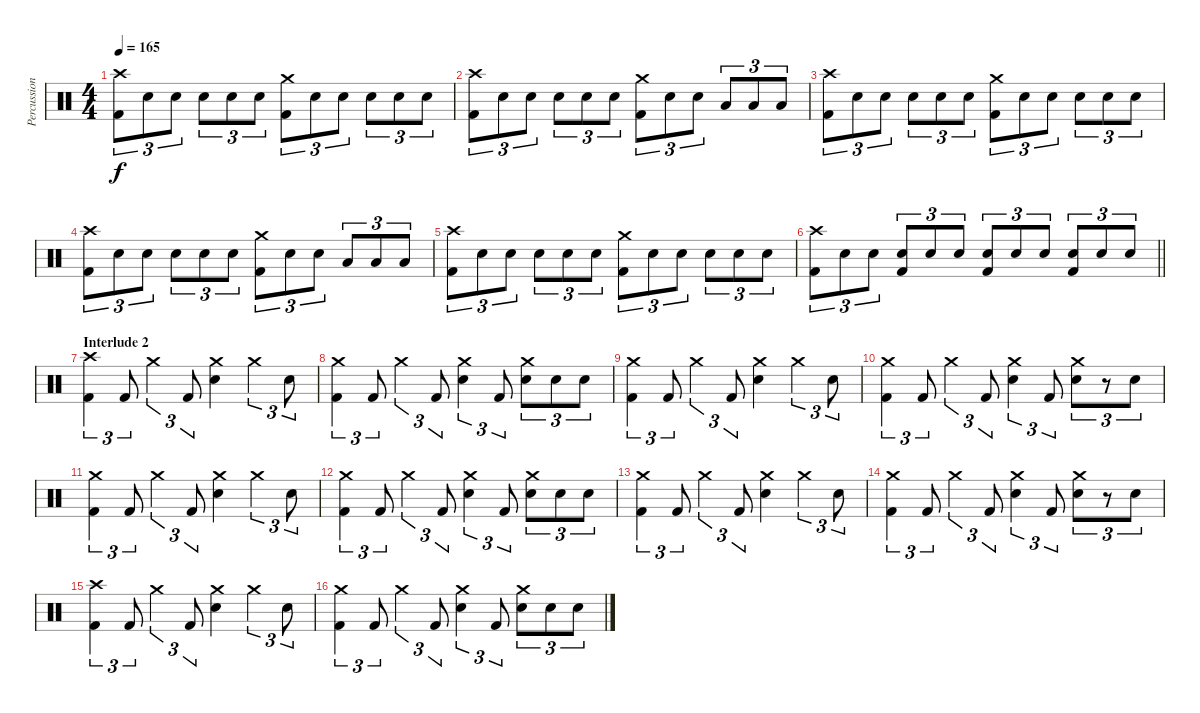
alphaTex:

\track ("Percussion" "Percussion") {instrument percussion}
\staff {score}
\articulation defaults
\ts (4 4)
\tempo 165
\clef neutral
\ks c
("Crash high (hit)" "Kick (hit) 2").8{tu (3 2) dy f} "Electric Snare (hit)".8{tu (3 2)} "Electric Snare (hit)".8{tu (3 2)} "Electric Snare (hit)".8{tu (3 2)} "Electric Snare (hit)".8{tu (3 2)} "Electric Snare (hit)".8{tu (3 2)} ("Crash medium (hit)" "Kick (hit) 2").8{tu (3 2)} "Electric Snare (hit)".8{tu (3 2)} "Electric Snare (hit)".8{tu (3 2)} "Electric Snare (hit)".8{tu (3 2)} "Electric Snare (hit)".8{tu (3 2)} "Electric Snare (hit)".8{tu (3 2)} |
("Crash high (hit)" "Kick (hit) 2").8{tu (3 2)} "Electric Snare (hit)".8{tu (3 2)} "Electric Snare (hit)".8{tu (3 2)} "Electric Snare (hit)".8{tu (3 2)} "Electric Snare (hit)".8{tu (3 2)} "Electric Snare (hit)".8{tu (3 2)} ("Crash medium (hit)" "Kick (hit) 2").8{tu (3 2)} "Electric Snare (hit)".8{tu (3 2)} "Electric Snare (hit)".8{tu (3 2)} "Low Tom (hit)".8{tu (3 2)} "Low Tom (hit)".8{tu (3 2)} "Low Tom (hit)".8{tu (3 2)} |
("Crash high (hit)" "Kick (hit) 2").8{tu (3 2)} "Electric Snare (hit)".8{tu (3 2)} "Electric Snare (hit)".8{tu (3 2)} "Electric Snare (hit)".8{tu (3 2)} "Electric Snare (hit)".8{tu (3 2)} "Electric Snare (hit)".8{tu (3 2)} ("Crash medium (hit)" "Kick (hit) 2").8{tu (3 2)} "Electric Snare (hit)".8{tu (3 2)} "Electric Snare (hit)".8{tu (3 2)} "Electric Snare (hit)".8{tu (3 2)} "Electric Snare (hit)".8{tu (3 2)} "Electric Snare (hit)".8{tu (3 2)} |
("Crash high (hit)" "Kick (hit) 2").8{tu (3 2)} "Electric Snare (hit)".8{tu (3 2)} "Electric Snare (hit)".8{tu (3 2)} "Electric Snare (hit)".8{tu (3 2)} "Electric Snare (hit)".8{tu (3 2)} "Electric Snare (hit)".8{tu (3 2)} ("Crash medium (hit)" "Kick (hit) 2").8{tu (3 2)} "Electric Snare (hit)".8{tu (3 2)} "Electric Snare (hit)".8{tu (3 2)} "Low Tom (hit)".8{tu (3 2)} "Low Tom (hit)".8{tu (3 2)} "Low Tom (hit)".8{tu (3 2)} |
("Crash high (hit)" "Kick (hit) 2").8{tu (3 2)} "Electric Snare (hit)".8{tu (3 2)} "Electric Snare (hit)".8{tu (3 2)} "Electric Snare (hit)".8{tu (3 2)} "Electric Snare (hit)".8{tu (3 2)} "Electric Snare (hit)".8{tu (3 2)} ("Crash medium (hit)" "Kick (hit) 2").8{tu (3 2)} "Electric Snare (hit)".8{tu (3 2)} "Electric Snare (hit)".8{tu (3 2)} "Electric Snare (hit)".8{tu (3 2)} "Electric Snare (hit)".8{tu (3 2)} "Electric Snare (hit)".8{tu (3 2)} |
\barLineRight lightlight
("Crash high (hit)" "Kick (hit) 2").8{tu (3 2)} "Electric Snare (hit)".8{tu (3 2)} "Electric Snare (hit)".8{tu (3 2)} ("Electric Snare (hit)" "Kick (hit) 2").8{tu (3 2)} "Electric Snare (hit)".8{tu (3 2)} "Electric Snare (hit)".8{tu (3 2)} ("Electric Snare (hit)" "Kick (hit) 2").8{tu (3 2)} "Electric Snare (hit)".8{tu (3 2)} "Electric Snare (hit)".8{tu (3 2)} ("Electric Snare (hit)" "Kick (hit) 2").8{tu (3 2)} "Electric Snare (hit)".8{tu (3 2)} "Electric Snare (hit)".8{tu (3 2)} |
\section ("" "Interlude 2")
("Crash high (hit)" "Kick (hit) 2").4{tu (3 2)} "Kick (hit) 2".8{tu (3 2)} "Crash medium (hit)".4{tu (3 2)} "Kick (hit) 2".8{tu (3 2)} ("Crash medium (hit)" "Electric Snare (hit)").4 "Crash medium (hit)".4{tu (3 2)} "Electric Snare (hit)".8{tu (3 2)} |
("Crash medium (hit)" "Kick (hit) 2").4{tu (3 2)} "Kick (hit) 2".8{tu (3 2)} "Crash medium (hit)".4{tu (3 2)} "Kick (hit) 2".8{tu (3 2)} ("Crash medium (hit)" "Electric Snare (hit)").4{tu (3 2)} "Kick (hit) 2".8{tu (3 2)} ("Crash medium (hit)" "Electric Snare (hit)").8{tu (3 2)} "Electric Snare (hit)".8{tu (3 2)} "Electric Snare (hit)".8{tu (3 2)} |
("Crash medium (hit)" "Kick (hit) 2").4{tu (3 2)} "Kick (hit) 2".8{tu (3 2)} "Crash medium (hit)".4{tu (3 2)} "Kick (hit) 2".8{tu (3 2)} ("Crash medium (hit)" "Electric Snare (hit)").4 "Crash medium (hit)".4{tu (3 2)} "Electric Snare (hit)".8{tu (3 2)} |
("Crash medium (hit)" "Kick (hit) 2").4{tu (3 2)} "Kick (hit) 2".8{tu (3 2)} "Crash medium (hit)".4{tu (3 2)} "Kick (hit) 2".8{tu (3 2)} ("Crash medium (hit)" "Electric Snare (hit)").4{tu (3 2)} "Kick (hit) 2".8{tu (3 2)} ("Crash medium (hit)" "Electric Snare (hit)").8{tu (3 2)} r.8{tu (3 2)} "Electric Snare (hit)".8{tu (3 2)} |
("Crash medium (hit)" "Kick (hit) 2").4{tu (3 2)} "Kick (hit) 2".8{tu (3 2)} "Crash medium (hit)".4{tu (3 2)} "Kick (hit) 2".8{tu (3 2)} ("Crash medium (hit)" "Electric Snare (hit)").4 "Crash medium (hit)".4{tu (3 2)} "Electric Snare (hit)".8{tu (3 2)} |
("Crash medium (hit)" "Kick (hit) 2").4{tu (3 2)} "Kick (hit) 2".8{tu (3 2)} "Crash medium (hit)".4{tu (3 2)} "Kick (hit) 2".8{tu (3 2)} ("Crash medium (hit)" "Electric Snare (hit)").4{tu (3 2)} "Kick (hit) 2".8{tu (3 2)} ("Crash medium (hit)" "Electric Snare (hit)").8{tu (3 2)} "Electric Snare (hit)".8{tu (3 2)} "Electric Snare (hit)".8{tu (3 2)} |
("Crash medium (hit)" "Kick (hit) 2").4{tu (3 2)} "Kick (hit) 2".8{tu (3 2)} "Crash medium (hit)".4{tu (3 2)} "Kick (hit) 2".8{tu (3 2)} ("Crash medium (hit)" "Electric Snare (hit)").4 "Crash medium (hit)".4{tu (3 2)} "Electric Snare (hit)".8{tu (3 2)} |
("Crash medium (hit)" "Kick (hit) 2").4{tu (3 2)} "Kick (hit) 2".8{tu (3 2)} "Crash medium (hit)".4{tu (3 2)} "Kick (hit) 2".8{tu (3 2)} ("Crash medium (hit)" "Electric Snare (hit)").4{tu (3 2)} "Kick (hit) 2".8{tu (3 2)} ("Crash medium (hit)" "Electric Snare (hit)").8{tu (3 2)} r.8{tu (3 2)} "Electric Snare (hit)".8{tu (3 2)} |
("Crash high (hit)" "Kick (hit) 2").4{tu (3 2)} "Kick (hit) 2".8{tu (3 2)} "Crash medium (hit)".4{tu (3 2)} "Kick (hit) 2".8{tu (3 2)} ("Crash medium (hit)" "Electric Snare (hit)").4 "Crash medium (hit)".4{tu (3 2)} "Electric Snare (hit)".8{tu (3 2)} |
("Crash medium (hit)" "Kick (hit) 2").4{tu (3 2)} "Kick (hit) 2".8{tu (3 2)} "Crash medium (hit)".4{tu (3 2)} "Kick (hit) 2".8{tu (3 2)} ("Crash medium (hit)" "Electric Snare (hit)").4{tu (3 2)} "Kick (hit) 2".8{tu (3 2)} ("Crash medium (hit)" "Electric Snare (hit)").8{tu (3 2)} "Electric Snare (hit)".8{tu (3 2)} "Electric Snare (hit)".8{tu (3 2)}
